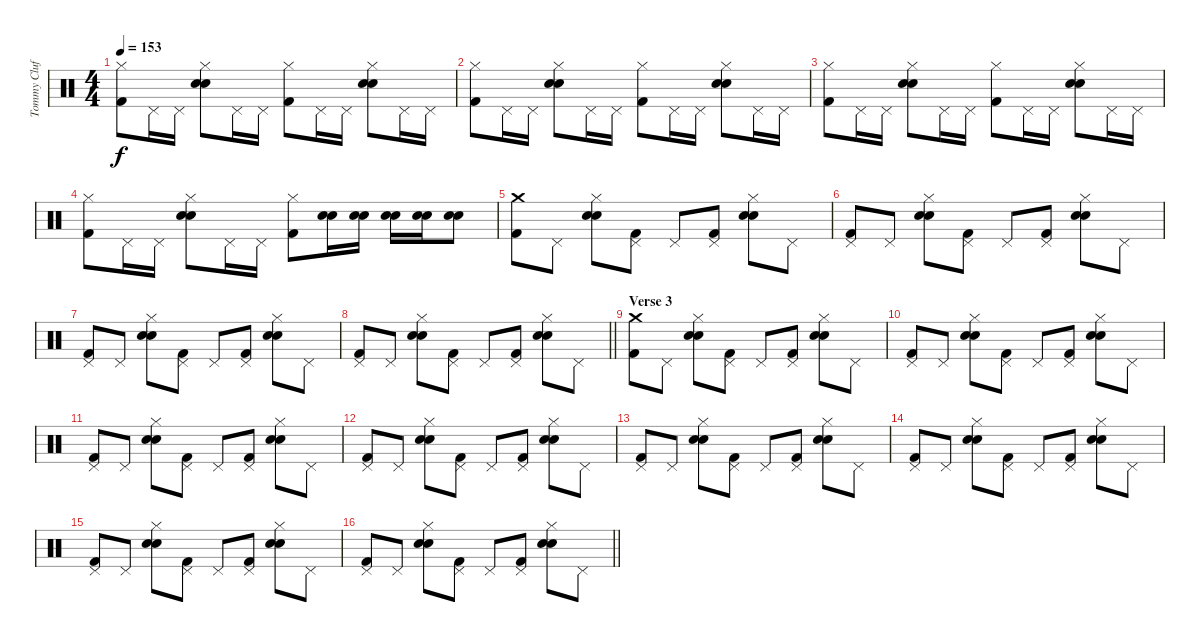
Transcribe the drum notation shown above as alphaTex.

\track ("Tommy Clufetos" "Tommy Cluf") {instrument percussion}
\staff {score}
\articulation defaults
\ts (4 4)
\tempo 153
\clef neutral
\ks c
("Hi-Hat (closed)" "Kick (hit) 2").8{dy f} "Pedal Hi-Hat (hit)".16 "Pedal Hi-Hat (hit)".16 ("Hi-Hat (closed)" "Electric Snare (hit)" "Snare (hit) 2").8 "Pedal Hi-Hat (hit)".16 "Pedal Hi-Hat (hit)".16 ("Hi-Hat (closed)" "Kick (hit) 2").8 "Pedal Hi-Hat (hit)".16 "Pedal Hi-Hat (hit)".16 ("Hi-Hat (closed)" "Electric Snare (hit)" "Snare (hit) 2").8 "Pedal Hi-Hat (hit)".16 "Pedal Hi-Hat (hit)".16 |
("Hi-Hat (closed)" "Kick (hit) 2").8 "Pedal Hi-Hat (hit)".16 "Pedal Hi-Hat (hit)".16 ("Hi-Hat (closed)" "Electric Snare (hit)" "Snare (hit) 2").8 "Pedal Hi-Hat (hit)".16 "Pedal Hi-Hat (hit)".16 ("Hi-Hat (closed)" "Kick (hit) 2").8 "Pedal Hi-Hat (hit)".16 "Pedal Hi-Hat (hit)".16 ("Hi-Hat (closed)" "Electric Snare (hit)" "Snare (hit) 2").8 "Pedal Hi-Hat (hit)".16 "Pedal Hi-Hat (hit)".16 |
("Hi-Hat (closed)" "Kick (hit) 2").8 "Pedal Hi-Hat (hit)".16 "Pedal Hi-Hat (hit)".16 ("Hi-Hat (closed)" "Electric Snare (hit)" "Snare (hit) 2").8 "Pedal Hi-Hat (hit)".16 "Pedal Hi-Hat (hit)".16 ("Hi-Hat (closed)" "Kick (hit) 2").8 "Pedal Hi-Hat (hit)".16 "Pedal Hi-Hat (hit)".16 ("Hi-Hat (closed)" "Electric Snare (hit)" "Snare (hit) 2").8 "Pedal Hi-Hat (hit)".16 "Pedal Hi-Hat (hit)".16 |
("Hi-Hat (closed)" "Kick (hit) 2").8 "Pedal Hi-Hat (hit)".16 "Pedal Hi-Hat (hit)".16 ("Hi-Hat (closed)" "Electric Snare (hit)" "Snare (hit) 2").8 "Pedal Hi-Hat (hit)".16 "Pedal Hi-Hat (hit)".16 ("Hi-Hat (closed)" "Kick (hit) 2").8 ("Electric Snare (hit)" "Snare (hit) 2").16 ("Electric Snare (hit)" "Snare (hit) 2").16 ("Electric Snare (hit)" "Snare (hit) 2").16 ("Electric Snare (hit)" "Snare (hit) 2").16 ("Electric Snare (hit)" "Snare (hit) 2").8 |
("Crash medium (hit)" "Kick (hit) 2").8 "Pedal Hi-Hat (hit)".8 ("Hi-Hat (closed)" "Electric Snare (hit)" "Snare (hit) 2").8 ("Pedal Hi-Hat (hit)" "Kick (hit) 2").8 "Pedal Hi-Hat (hit)".8 ("Pedal Hi-Hat (hit)" "Kick (hit) 2").8 ("Hi-Hat (closed)" "Electric Snare (hit)" "Snare (hit) 2").8 "Pedal Hi-Hat (hit)".8 |
("Pedal Hi-Hat (hit)" "Kick (hit) 2").8 "Pedal Hi-Hat (hit)".8 ("Hi-Hat (closed)" "Electric Snare (hit)" "Snare (hit) 2").8 ("Pedal Hi-Hat (hit)" "Kick (hit) 2").8 "Pedal Hi-Hat (hit)".8 ("Pedal Hi-Hat (hit)" "Kick (hit) 2").8 ("Hi-Hat (closed)" "Electric Snare (hit)" "Snare (hit) 2").8 "Pedal Hi-Hat (hit)".8 |
("Pedal Hi-Hat (hit)" "Kick (hit) 2").8 "Pedal Hi-Hat (hit)".8 ("Hi-Hat (closed)" "Electric Snare (hit)" "Snare (hit) 2").8 ("Pedal Hi-Hat (hit)" "Kick (hit) 2").8 "Pedal Hi-Hat (hit)".8 ("Pedal Hi-Hat (hit)" "Kick (hit) 2").8 ("Hi-Hat (closed)" "Electric Snare (hit)" "Snare (hit) 2").8 "Pedal Hi-Hat (hit)".8 |
\barLineRight lightlight
("Pedal Hi-Hat (hit)" "Kick (hit) 2").8 "Pedal Hi-Hat (hit)".8 ("Hi-Hat (closed)" "Electric Snare (hit)" "Snare (hit) 2").8 ("Pedal Hi-Hat (hit)" "Kick (hit) 2").8 "Pedal Hi-Hat (hit)".8 ("Pedal Hi-Hat (hit)" "Kick (hit) 2").8 ("Hi-Hat (closed)" "Electric Snare (hit)" "Snare (hit) 2").8 "Pedal Hi-Hat (hit)".8 |
\section ("" "Verse 3")
("Crash medium (hit)" "Kick (hit) 2").8 "Pedal Hi-Hat (hit)".8 ("Hi-Hat (closed)" "Electric Snare (hit)" "Snare (hit) 2").8 ("Pedal Hi-Hat (hit)" "Kick (hit) 2").8 "Pedal Hi-Hat (hit)".8 ("Pedal Hi-Hat (hit)" "Kick (hit) 2").8 ("Hi-Hat (closed)" "Electric Snare (hit)" "Snare (hit) 2").8 "Pedal Hi-Hat (hit)".8 |
("Pedal Hi-Hat (hit)" "Kick (hit) 2").8 "Pedal Hi-Hat (hit)".8 ("Hi-Hat (closed)" "Electric Snare (hit)" "Snare (hit) 2").8 ("Pedal Hi-Hat (hit)" "Kick (hit) 2").8 "Pedal Hi-Hat (hit)".8 ("Pedal Hi-Hat (hit)" "Kick (hit) 2").8 ("Hi-Hat (closed)" "Electric Snare (hit)" "Snare (hit) 2").8 "Pedal Hi-Hat (hit)".8 |
("Pedal Hi-Hat (hit)" "Kick (hit) 2").8 "Pedal Hi-Hat (hit)".8 ("Hi-Hat (closed)" "Electric Snare (hit)" "Snare (hit) 2").8 ("Pedal Hi-Hat (hit)" "Kick (hit) 2").8 "Pedal Hi-Hat (hit)".8 ("Pedal Hi-Hat (hit)" "Kick (hit) 2").8 ("Hi-Hat (closed)" "Electric Snare (hit)" "Snare (hit) 2").8 "Pedal Hi-Hat (hit)".8 |
("Pedal Hi-Hat (hit)" "Kick (hit) 2").8 "Pedal Hi-Hat (hit)".8 ("Hi-Hat (closed)" "Electric Snare (hit)" "Snare (hit) 2").8 ("Pedal Hi-Hat (hit)" "Kick (hit) 2").8 "Pedal Hi-Hat (hit)".8 ("Pedal Hi-Hat (hit)" "Kick (hit) 2").8 ("Hi-Hat (closed)" "Electric Snare (hit)" "Snare (hit) 2").8 "Pedal Hi-Hat (hit)".8 |
("Pedal Hi-Hat (hit)" "Kick (hit) 2").8 "Pedal Hi-Hat (hit)".8 ("Hi-Hat (closed)" "Electric Snare (hit)" "Snare (hit) 2").8 ("Pedal Hi-Hat (hit)" "Kick (hit) 2").8 "Pedal Hi-Hat (hit)".8 ("Pedal Hi-Hat (hit)" "Kick (hit) 2").8 ("Hi-Hat (closed)" "Electric Snare (hit)" "Snare (hit) 2").8 "Pedal Hi-Hat (hit)".8 |
("Pedal Hi-Hat (hit)" "Kick (hit) 2").8 "Pedal Hi-Hat (hit)".8 ("Hi-Hat (closed)" "Electric Snare (hit)" "Snare (hit) 2").8 ("Pedal Hi-Hat (hit)" "Kick (hit) 2").8 "Pedal Hi-Hat (hit)".8 ("Pedal Hi-Hat (hit)" "Kick (hit) 2").8 ("Hi-Hat (closed)" "Electric Snare (hit)" "Snare (hit) 2").8 "Pedal Hi-Hat (hit)".8 |
("Pedal Hi-Hat (hit)" "Kick (hit) 2").8 "Pedal Hi-Hat (hit)".8 ("Hi-Hat (closed)" "Electric Snare (hit)" "Snare (hit) 2").8 ("Pedal Hi-Hat (hit)" "Kick (hit) 2").8 "Pedal Hi-Hat (hit)".8 ("Pedal Hi-Hat (hit)" "Kick (hit) 2").8 ("Hi-Hat (closed)" "Electric Snare (hit)" "Snare (hit) 2").8 "Pedal Hi-Hat (hit)".8 |
\barLineRight lightlight
("Pedal Hi-Hat (hit)" "Kick (hit) 2").8 "Pedal Hi-Hat (hit)".8 ("Hi-Hat (closed)" "Electric Snare (hit)" "Snare (hit) 2").8 ("Pedal Hi-Hat (hit)" "Kick (hit) 2").8 "Pedal Hi-Hat (hit)".8 ("Pedal Hi-Hat (hit)" "Kick (hit) 2").8 ("Hi-Hat (closed)" "Electric Snare (hit)" "Snare (hit) 2").8 "Pedal Hi-Hat (hit)".8
